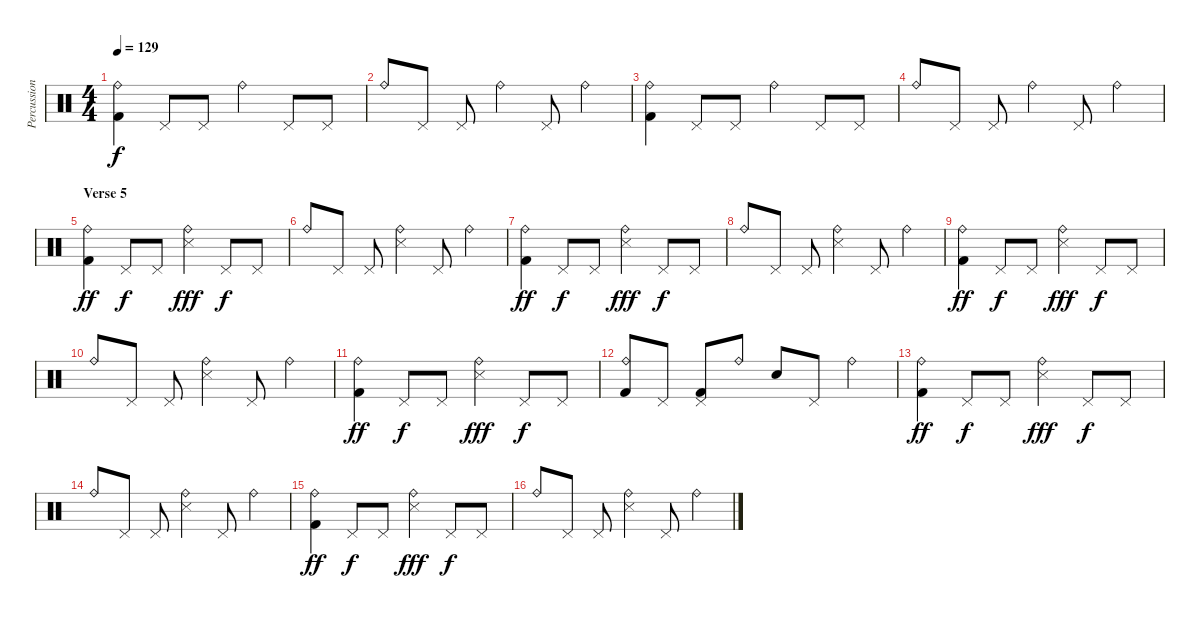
\track ("Percussion" "Percussion") {instrument percussion}
\staff {score}
\articulation defaults
\ts (4 4)
\tempo 129
\clef neutral
\ks c
("Ride (bell)" "Kick (hit) 2").4{dy f} "Pedal Hi-Hat (hit)".8 "Pedal Hi-Hat (hit)".8 "Ride (bell)".4 "Pedal Hi-Hat (hit)".8 "Pedal Hi-Hat (hit)".8 |
"Ride (bell)".8 "Pedal Hi-Hat (hit)".8 "Pedal Hi-Hat (hit)".8 "Ride (bell)".4 "Pedal Hi-Hat (hit)".8 "Ride (bell)".4 |
("Ride (bell)" "Kick (hit) 2").4 "Pedal Hi-Hat (hit)".8 "Pedal Hi-Hat (hit)".8 "Ride (bell)".4 "Pedal Hi-Hat (hit)".8 "Pedal Hi-Hat (hit)".8 |
"Ride (bell)".8 "Pedal Hi-Hat (hit)".8 "Pedal Hi-Hat (hit)".8 "Ride (bell)".4 "Pedal Hi-Hat (hit)".8 "Ride (bell)".4 |
\section ("" "Verse 5")
("Ride (bell)" "Kick (hit) 2").4{dy ff} "Pedal Hi-Hat (hit)".8{dy f} "Pedal Hi-Hat (hit)".8 ("Ride (bell)" "Snare (side stick) 3").4{dy fff} "Pedal Hi-Hat (hit)".8{dy f} "Pedal Hi-Hat (hit)".8 |
"Ride (bell)".8 "Pedal Hi-Hat (hit)".8 "Pedal Hi-Hat (hit)".8 ("Ride (bell)" "Snare (side stick) 3").4 "Pedal Hi-Hat (hit)".8 "Ride (bell)".4 |
("Ride (bell)" "Kick (hit) 2").4{dy ff} "Pedal Hi-Hat (hit)".8{dy f} "Pedal Hi-Hat (hit)".8 ("Ride (bell)" "Snare (side stick) 3").4{dy fff} "Pedal Hi-Hat (hit)".8{dy f} "Pedal Hi-Hat (hit)".8 |
"Ride (bell)".8 "Pedal Hi-Hat (hit)".8 "Pedal Hi-Hat (hit)".8 ("Ride (bell)" "Snare (side stick) 3").4 "Pedal Hi-Hat (hit)".8 "Ride (bell)".4 |
("Ride (bell)" "Kick (hit) 2").4{dy ff} "Pedal Hi-Hat (hit)".8{dy f} "Pedal Hi-Hat (hit)".8 ("Ride (bell)" "Snare (side stick) 3").4{dy fff} "Pedal Hi-Hat (hit)".8{dy f} "Pedal Hi-Hat (hit)".8 |
"Ride (bell)".8 "Pedal Hi-Hat (hit)".8 "Pedal Hi-Hat (hit)".8 ("Ride (bell)" "Snare (side stick) 3").4 "Pedal Hi-Hat (hit)".8 "Ride (bell)".4 |
("Ride (bell)" "Kick (hit) 2").4{dy ff} "Pedal Hi-Hat (hit)".8{dy f} "Pedal Hi-Hat (hit)".8 ("Ride (bell)" "Snare (side stick) 3").4{dy fff} "Pedal Hi-Hat (hit)".8{dy f} "Pedal Hi-Hat (hit)".8 |
("Ride (bell)" "Kick (hit) 2").8 "Pedal Hi-Hat (hit)".8 ("Pedal Hi-Hat (hit)" "Kick (hit) 2").8 "Ride (bell)".8 "Snare (hit) 2".8 "Pedal Hi-Hat (hit)".8 "Ride (bell)".4 |
("Ride (bell)" "Kick (hit) 2").4{dy ff} "Pedal Hi-Hat (hit)".8{dy f} "Pedal Hi-Hat (hit)".8 ("Ride (bell)" "Snare (side stick) 3").4{dy fff} "Pedal Hi-Hat (hit)".8{dy f} "Pedal Hi-Hat (hit)".8 |
"Ride (bell)".8 "Pedal Hi-Hat (hit)".8 "Pedal Hi-Hat (hit)".8 ("Ride (bell)" "Snare (side stick) 3").4 "Pedal Hi-Hat (hit)".8 "Ride (bell)".4 |
("Ride (bell)" "Kick (hit) 2").4{dy ff} "Pedal Hi-Hat (hit)".8{dy f} "Pedal Hi-Hat (hit)".8 ("Ride (bell)" "Snare (side stick) 3").4{dy fff} "Pedal Hi-Hat (hit)".8{dy f} "Pedal Hi-Hat (hit)".8 |
"Ride (bell)".8 "Pedal Hi-Hat (hit)".8 "Pedal Hi-Hat (hit)".8 ("Ride (bell)" "Snare (side stick) 3").4 "Pedal Hi-Hat (hit)".8 "Ride (bell)".4
